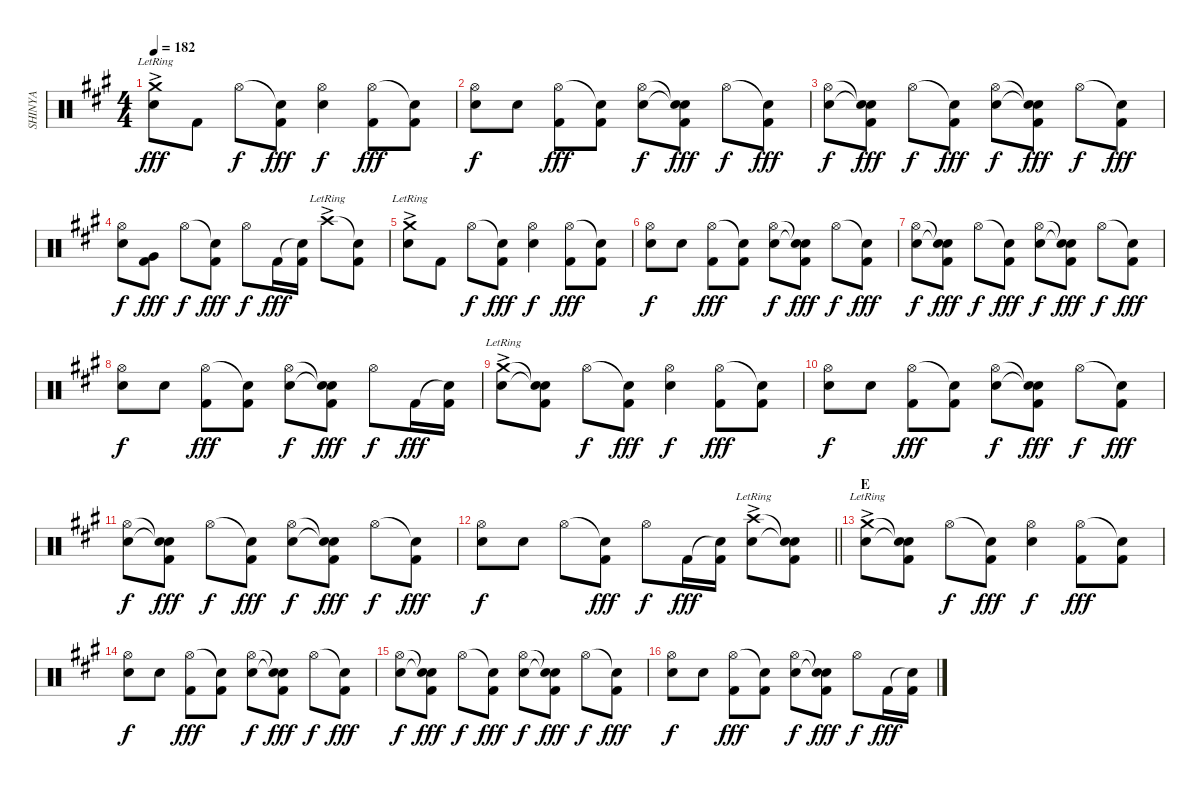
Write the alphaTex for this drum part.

\track ("SHINYA" "SHINYA") {instrument percussion}
\staff {score}
\articulation defaults
\ts (4 4)
\tempo 182
\clef neutral
\ks a
("Crash medium (hit)"{ac lr} "Electric Snare (hit)").8{dy fff} "Kick (hit) 2".8 "Hi-Hat (open)".8{dy f} ("Snare (hit)"{t} "Kick (hit) 2").8{dy fff} ("Hi-Hat (open)" "Electric Snare (hit)").4{dy f} ("Hi-Hat (open)" "Kick (hit) 2").8{dy fff} ("Snare (hit)"{t} "Kick (hit) 2").8 |
("Hi-Hat (open)" "Electric Snare (hit)").8{dy f} "Electric Snare (hit)".8 ("Hi-Hat (open)" "Kick (hit) 2").8{dy fff} ("Snare (hit)"{t} "Kick (hit) 2").8 ("Hi-Hat (open)" "Electric Snare (hit)").8{dy f} ("Snare (hit)"{t} "Snare (hit)"{t} "Kick (hit) 2").8{dy fff} "Hi-Hat (open)".8{dy f} ("Snare (hit)"{t} "Kick (hit) 2").8{dy fff} |
("Hi-Hat (open)" "Electric Snare (hit)").8{dy f} ("Snare (hit)"{t} "Snare (hit)"{t} "Kick (hit) 2").8{dy fff} "Hi-Hat (open)".8{dy f} ("Snare (hit)"{t} "Kick (hit) 2").8{dy fff} ("Hi-Hat (open)" "Electric Snare (hit)").8{dy f} ("Snare (hit)"{t} "Snare (hit)"{t} "Kick (hit) 2").8{dy fff} "Hi-Hat (open)".8{dy f} ("Snare (hit)"{t} "Kick (hit) 2").8{dy fff} |
("Hi-Hat (open)" "Electric Snare (hit)").8{dy f} ("Very Low Tom (hit)" "Kick (hit) 2").8{dy fff} "Hi-Hat (open)".8{dy f} ("Snare (hit)"{t} "Kick (hit) 2").8{dy fff} "Hi-Hat (open)".8{dy f} "Kick (hit) 2".16{dy fff} ("Snare (hit)"{t} "Kick (hit) 2").16 "Crash high (hit)"{ac lr}.8 ("Snare (hit)"{t} "Kick (hit) 2").8 |
("Crash medium (hit)"{ac lr} "Electric Snare (hit)").8 "Kick (hit) 2".8 "Hi-Hat (open)".8{dy f} ("Snare (hit)"{t} "Kick (hit) 2").8{dy fff} ("Hi-Hat (open)" "Electric Snare (hit)").4{dy f} ("Hi-Hat (open)" "Kick (hit) 2").8{dy fff} ("Snare (hit)"{t} "Kick (hit) 2").8 |
("Hi-Hat (open)" "Electric Snare (hit)").8{dy f} "Electric Snare (hit)".8 ("Hi-Hat (open)" "Kick (hit) 2").8{dy fff} ("Snare (hit)"{t} "Kick (hit) 2").8 ("Hi-Hat (open)" "Electric Snare (hit)").8{dy f} ("Snare (hit)"{t} "Snare (hit)"{t} "Kick (hit) 2").8{dy fff} "Hi-Hat (open)".8{dy f} ("Snare (hit)"{t} "Kick (hit) 2").8{dy fff} |
("Hi-Hat (open)" "Electric Snare (hit)").8{dy f} ("Snare (hit)"{t} "Snare (hit)"{t} "Kick (hit) 2").8{dy fff} "Hi-Hat (open)".8{dy f} ("Snare (hit)"{t} "Kick (hit) 2").8{dy fff} ("Hi-Hat (open)" "Electric Snare (hit)").8{dy f} ("Snare (hit)"{t} "Snare (hit)"{t} "Kick (hit) 2").8{dy fff} "Hi-Hat (open)".8{dy f} ("Snare (hit)"{t} "Kick (hit) 2").8{dy fff} |
("Hi-Hat (open)" "Electric Snare (hit)").8{dy f} "Electric Snare (hit)".8 ("Hi-Hat (open)" "Kick (hit) 2").8{dy fff} ("Snare (hit)"{t} "Kick (hit) 2").8 ("Hi-Hat (open)" "Electric Snare (hit)").8{dy f} ("Snare (hit)"{t} "Snare (hit)"{t} "Kick (hit) 2").8{dy fff} "Hi-Hat (open)".8{dy f} "Kick (hit) 2".16{dy fff} ("Snare (hit)"{t} "Kick (hit) 2").16 |
("Crash medium (hit)"{ac lr} "Electric Snare (hit)").8 ("Snare (hit)"{t} "Snare (hit)"{t} "Kick (hit) 2").8 "Hi-Hat (open)".8{dy f} ("Snare (hit)"{t} "Kick (hit) 2").8{dy fff} ("Hi-Hat (open)" "Electric Snare (hit)").4{dy f} ("Hi-Hat (open)" "Kick (hit) 2").8{dy fff} ("Snare (hit)"{t} "Kick (hit) 2").8 |
("Hi-Hat (open)" "Electric Snare (hit)").8{dy f} "Electric Snare (hit)".8 ("Hi-Hat (open)" "Kick (hit) 2").8{dy fff} ("Snare (hit)"{t} "Kick (hit) 2").8 ("Hi-Hat (open)" "Electric Snare (hit)").8{dy f} ("Snare (hit)"{t} "Snare (hit)"{t} "Kick (hit) 2").8{dy fff} "Hi-Hat (open)".8{dy f} ("Snare (hit)"{t} "Kick (hit) 2").8{dy fff} |
("Hi-Hat (open)" "Electric Snare (hit)").8{dy f} ("Snare (hit)"{t} "Snare (hit)"{t} "Kick (hit) 2").8{dy fff} "Hi-Hat (open)".8{dy f} ("Snare (hit)"{t} "Kick (hit) 2").8{dy fff} ("Hi-Hat (open)" "Electric Snare (hit)").8{dy f} ("Snare (hit)"{t} "Snare (hit)"{t} "Kick (hit) 2").8{dy fff} "Hi-Hat (open)".8{dy f} ("Snare (hit)"{t} "Kick (hit) 2").8{dy fff} |
\barLineRight lightlight
("Hi-Hat (open)" "Electric Snare (hit)").8{dy f} "Electric Snare (hit)".8 "Hi-Hat (open)".8 ("Snare (hit)"{t} "Kick (hit) 2").8{dy fff} "Hi-Hat (open)".8{dy f} "Kick (hit) 2".16{dy fff} ("Snare (hit)"{t} "Kick (hit) 2").16 ("Crash high (hit)"{ac lr} "Electric Snare (hit)").8 ("Snare (hit)"{t} "Snare (hit)"{t} "Kick (hit) 2").8 |
\section ("" "E")
("Crash medium (hit)"{ac lr} "Electric Snare (hit)").8 ("Snare (hit)"{t} "Snare (hit)"{t} "Kick (hit) 2").8 "Hi-Hat (open)".8{dy f} ("Snare (hit)"{t} "Kick (hit) 2").8{dy fff} ("Hi-Hat (open)" "Electric Snare (hit)").4{dy f} ("Hi-Hat (open)" "Kick (hit) 2").8{dy fff} ("Snare (hit)"{t} "Kick (hit) 2").8 |
("Hi-Hat (open)" "Electric Snare (hit)").8{dy f} "Electric Snare (hit)".8 ("Hi-Hat (open)" "Kick (hit) 2").8{dy fff} ("Snare (hit)"{t} "Kick (hit) 2").8 ("Hi-Hat (open)" "Electric Snare (hit)").8{dy f} ("Snare (hit)"{t} "Snare (hit)"{t} "Kick (hit) 2").8{dy fff} "Hi-Hat (open)".8{dy f} ("Snare (hit)"{t} "Kick (hit) 2").8{dy fff} |
("Hi-Hat (open)" "Electric Snare (hit)").8{dy f} ("Snare (hit)"{t} "Snare (hit)"{t} "Kick (hit) 2").8{dy fff} "Hi-Hat (open)".8{dy f} ("Snare (hit)"{t} "Kick (hit) 2").8{dy fff} ("Hi-Hat (open)" "Electric Snare (hit)").8{dy f} ("Snare (hit)"{t} "Snare (hit)"{t} "Kick (hit) 2").8{dy fff} "Hi-Hat (open)".8{dy f} ("Snare (hit)"{t} "Kick (hit) 2").8{dy fff} |
("Hi-Hat (open)" "Electric Snare (hit)").8{dy f} "Electric Snare (hit)".8 ("Hi-Hat (open)" "Kick (hit) 2").8{dy fff} ("Snare (hit)"{t} "Kick (hit) 2").8 ("Hi-Hat (open)" "Electric Snare (hit)").8{dy f} ("Snare (hit)"{t} "Snare (hit)"{t} "Kick (hit) 2").8{dy fff} "Hi-Hat (open)".8{dy f} "Kick (hit) 2".16{dy fff} ("Snare (hit)"{t} "Kick (hit) 2").16
